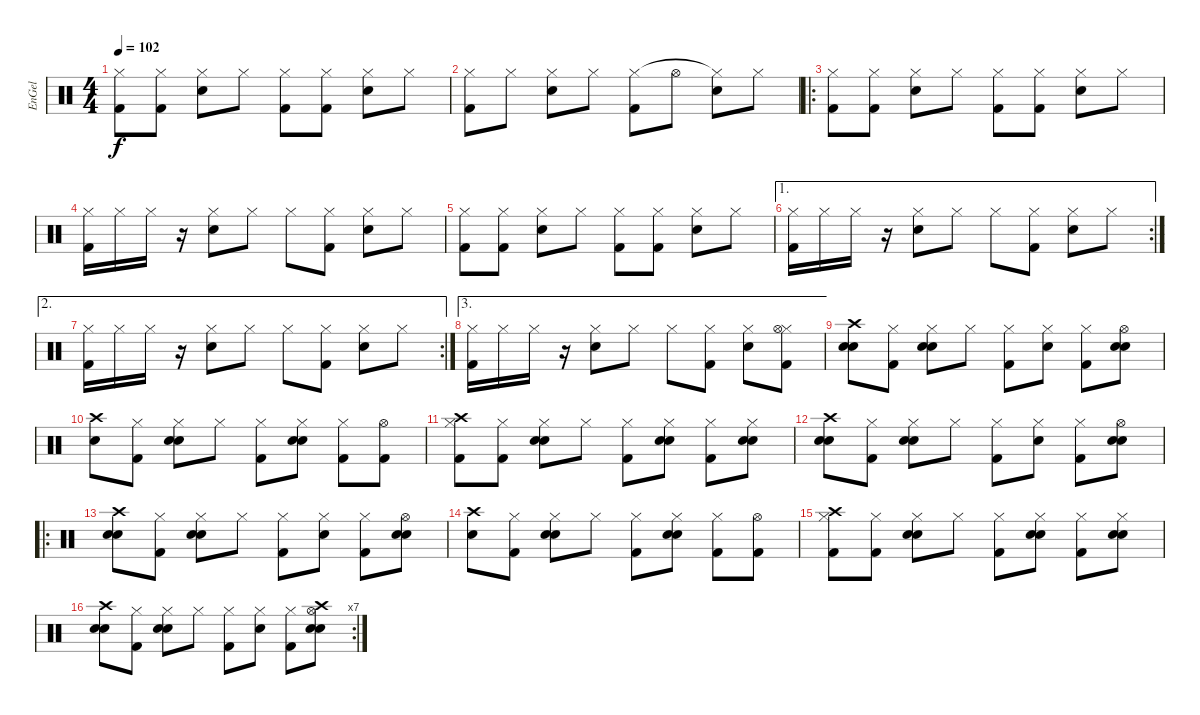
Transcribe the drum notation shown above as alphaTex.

\track ("EnGel" "EnGel") {instrument percussion}
\staff {score}
\articulation defaults
\ts (4 4)
\tempo 102
\clef neutral
\ks c
("Kick (hit) 2" "Hi-Hat (closed)").8{dy f} ("Kick (hit) 2" "Hi-Hat (closed)").8 ("Snare (hit) 2" "Hi-Hat (closed)").8 "Hi-Hat (closed)".8 ("Kick (hit) 2" "Hi-Hat (closed)").8 ("Kick (hit) 2" "Hi-Hat (closed)").8 ("Snare (hit) 2" "Hi-Hat (closed)").8 "Hi-Hat (closed)".8 |
("Kick (hit) 2" "Hi-Hat (closed)").8 "Hi-Hat (closed)".8 ("Snare (hit) 2" "Hi-Hat (closed)").8 "Hi-Hat (closed)".8 ("Kick (hit) 2" "Hi-Hat (closed)").8 "Hi-Hat (open)".8 ("Snare (hit) 2" "Hi-Hat (closed)"{t}).8 "Hi-Hat (closed)".8 |
\ro
("Kick (hit) 2" "Hi-Hat (closed)").8 ("Kick (hit) 2" "Hi-Hat (closed)").8 ("Snare (hit) 2" "Hi-Hat (closed)").8 "Hi-Hat (closed)".8 ("Kick (hit) 2" "Hi-Hat (closed)").8 ("Kick (hit) 2" "Hi-Hat (closed)").8 ("Snare (hit) 2" "Hi-Hat (closed)").8 "Hi-Hat (closed)".8 |
("Kick (hit) 2" "Hi-Hat (closed)").16 "Hi-Hat (closed)".16 "Hi-Hat (closed)".16 r.16 ("Snare (hit) 2" "Hi-Hat (closed)").8 "Hi-Hat (closed)".8 "Hi-Hat (closed)".8 ("Kick (hit) 2" "Hi-Hat (closed)").8 ("Snare (hit) 2" "Hi-Hat (closed)").8 "Hi-Hat (closed)".8 |
("Kick (hit) 2" "Hi-Hat (closed)").8 ("Kick (hit) 2" "Hi-Hat (closed)").8 ("Snare (hit) 2" "Hi-Hat (closed)").8 "Hi-Hat (closed)".8 ("Kick (hit) 2" "Hi-Hat (closed)").8 ("Kick (hit) 2" "Hi-Hat (closed)").8 ("Snare (hit) 2" "Hi-Hat (closed)").8 "Hi-Hat (closed)".8 |
\ae 1
\rc 2
("Kick (hit) 2" "Hi-Hat (closed)").16 "Hi-Hat (closed)".16 "Hi-Hat (closed)".16 r.16 ("Snare (hit) 2" "Hi-Hat (closed)").8 "Hi-Hat (closed)".8 "Hi-Hat (closed)".8 ("Kick (hit) 2" "Hi-Hat (closed)").8 ("Snare (hit) 2" "Hi-Hat (closed)").8 "Hi-Hat (closed)".8 |
\ae 2
\rc 2
("Kick (hit) 2" "Hi-Hat (closed)").16 "Hi-Hat (closed)".16 "Hi-Hat (closed)".16 r.16 ("Snare (hit) 2" "Hi-Hat (closed)").8 "Hi-Hat (closed)".8 "Hi-Hat (closed)".8 ("Kick (hit) 2" "Hi-Hat (closed)").8 ("Snare (hit) 2" "Hi-Hat (closed)").8 "Hi-Hat (closed)".8 |
\ae 3
("Kick (hit) 2" "Hi-Hat (closed)").16 "Hi-Hat (closed)".16 "Hi-Hat (closed)".16 r.16 ("Snare (hit) 2" "Hi-Hat (closed)").8 "Hi-Hat (closed)".8 "Hi-Hat (closed)".8 ("Kick (hit) 2" "Hi-Hat (closed)").8 ("Snare (hit) 2" "Hi-Hat (closed)").8 ("Kick (hit) 2" "Hi-Hat (closed)" "Hi-Hat (open)").8 |
("Snare (hit) 2" "Crash high (hit)" "Electric Snare (hit)").8 ("Kick (hit) 2" "Hi-Hat (closed)").8 ("Electric Snare (hit)" "Hi-Hat (closed)" "Snare (hit) 2").8 "Hi-Hat (closed)".8 ("Kick (hit) 2" "Hi-Hat (closed)").8 ("Snare (hit) 2" "Hi-Hat (closed)").8 ("Kick (hit) 2" "Hi-Hat (closed)").8 ("Electric Snare (hit)" "Hi-Hat (open)" "Snare (hit) 2").8 |
("Snare (hit) 2" "Crash high (hit)").8 ("Kick (hit) 2" "Hi-Hat (closed)").8 ("Snare (hit) 2" "Hi-Hat (closed)" "Electric Snare (hit)").8 "Hi-Hat (closed)".8 ("Kick (hit) 2" "Hi-Hat (closed)").8 ("Snare (hit) 2" "Hi-Hat (closed)" "Electric Snare (hit)").8 ("Kick (hit) 2" "Hi-Hat (closed)").8 ("Kick (hit) 2" "Hi-Hat (open)").8 |
("Kick (hit) 2" "Hi-Hat (closed)" "Crash high (hit)").8 ("Kick (hit) 2" "Hi-Hat (closed)").8 ("Snare (hit) 2" "Hi-Hat (closed)" "Electric Snare (hit)").8 "Hi-Hat (closed)".8 ("Kick (hit) 2" "Hi-Hat (closed)").8 ("Snare (hit) 2" "Hi-Hat (closed)" "Electric Snare (hit)").8 ("Kick (hit) 2" "Hi-Hat (closed)").8 ("Snare (hit) 2" "Hi-Hat (closed)" "Electric Snare (hit)").8 |
("Snare (hit) 2" "Crash high (hit)" "Electric Snare (hit)").8 ("Kick (hit) 2" "Hi-Hat (closed)").8 ("Electric Snare (hit)" "Hi-Hat (closed)" "Snare (hit) 2").8 "Hi-Hat (closed)".8 ("Kick (hit) 2" "Hi-Hat (closed)").8 ("Snare (hit) 2" "Hi-Hat (closed)").8 ("Kick (hit) 2" "Hi-Hat (closed)").8 ("Electric Snare (hit)" "Hi-Hat (open)" "Snare (hit) 2").8 |
\ro
("Snare (hit) 2" "Crash high (hit)" "Electric Snare (hit)").8 ("Kick (hit) 2" "Hi-Hat (closed)").8 ("Electric Snare (hit)" "Hi-Hat (closed)" "Snare (hit) 2").8 "Hi-Hat (closed)".8 ("Kick (hit) 2" "Hi-Hat (closed)").8 ("Snare (hit) 2" "Hi-Hat (closed)").8 ("Kick (hit) 2" "Hi-Hat (closed)").8 ("Electric Snare (hit)" "Hi-Hat (open)" "Snare (hit) 2").8 |
("Snare (hit) 2" "Crash high (hit)").8 ("Kick (hit) 2" "Hi-Hat (closed)").8 ("Snare (hit) 2" "Hi-Hat (closed)" "Electric Snare (hit)").8 "Hi-Hat (closed)".8 ("Kick (hit) 2" "Hi-Hat (closed)").8 ("Snare (hit) 2" "Hi-Hat (closed)" "Electric Snare (hit)").8 ("Kick (hit) 2" "Hi-Hat (closed)").8 ("Kick (hit) 2" "Hi-Hat (open)").8 |
("Kick (hit) 2" "Hi-Hat (closed)" "Crash high (hit)").8 ("Kick (hit) 2" "Hi-Hat (closed)").8 ("Snare (hit) 2" "Hi-Hat (closed)" "Electric Snare (hit)").8 "Hi-Hat (closed)".8 ("Kick (hit) 2" "Hi-Hat (closed)").8 ("Snare (hit) 2" "Hi-Hat (closed)" "Electric Snare (hit)").8 ("Kick (hit) 2" "Hi-Hat (closed)").8 ("Snare (hit) 2" "Hi-Hat (closed)" "Electric Snare (hit)").8 |
\rc 7
("Snare (hit) 2" "Crash high (hit)" "Electric Snare (hit)").8 ("Kick (hit) 2" "Hi-Hat (closed)").8 ("Electric Snare (hit)" "Hi-Hat (closed)" "Snare (hit) 2").8 "Hi-Hat (closed)".8 ("Kick (hit) 2" "Hi-Hat (closed)").8 ("Snare (hit) 2" "Hi-Hat (closed)").8 ("Kick (hit) 2" "Hi-Hat (closed)").8 ("Electric Snare (hit)" "Hi-Hat (open)" "Snare (hit) 2" "Crash high (hit)").8
